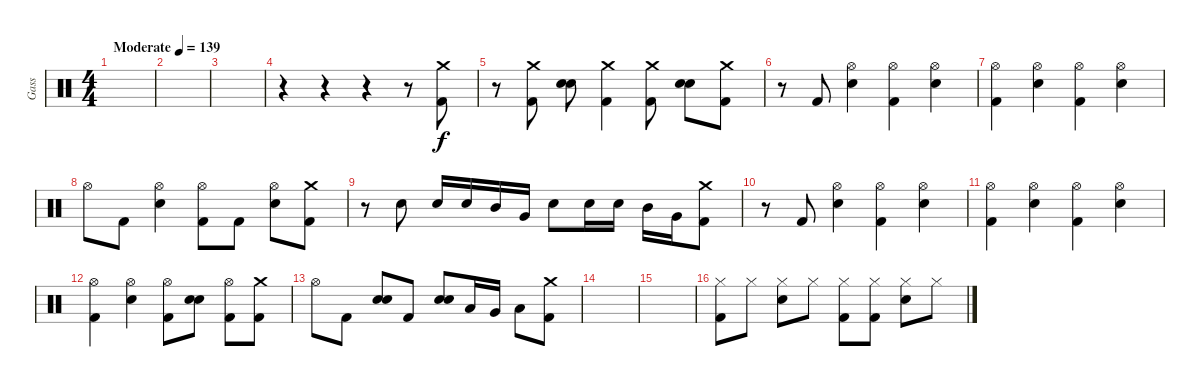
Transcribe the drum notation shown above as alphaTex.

\track ("Gass" "Gass") {instrument percussion}
\staff {score}
\articulation defaults
\ts (4 4)
\tempo (139 "Moderate")
\clef neutral
\ks c
|
|
|
r.4 r.4 r.4 r.8 ("Crash medium (hit)" "Kick (hit) 2").8 |
r.8 ("Crash medium (hit)" "Kick (hit) 2").8 ("Electric Snare (hit)" "Electric Snare (hit)").8 ("Crash medium (hit)" "Kick (hit) 2").4 ("Crash medium (hit)" "Kick (hit) 2").8 ("Electric Snare (hit)" "Electric Snare (hit)").8 ("Crash medium (hit)" "Kick (hit) 2").8 |
r.8 "Kick (hit) 2".8 ("Hi-Hat (open)" "Electric Snare (hit)").4 ("Hi-Hat (open)" "Kick (hit) 2").4 ("Hi-Hat (open)" "Electric Snare (hit)").4 |
("Hi-Hat (open)" "Kick (hit) 2").4 ("Hi-Hat (open)" "Electric Snare (hit)").4 ("Hi-Hat (open)" "Kick (hit) 2").4 ("Hi-Hat (open)" "Electric Snare (hit)").4 |
"Hi-Hat (open)".8 "Kick (hit) 2".8 ("Hi-Hat (open)" "Electric Snare (hit)").4 ("Hi-Hat (open)" "Kick (hit) 2").8 "Kick (hit) 2".8 ("Hi-Hat (open)" "Electric Snare (hit)").8 ("Crash medium (hit)" "Kick (hit) 2").8 |
r.8 "Electric Snare (hit)".8 "Electric Snare (hit)".16 "Electric Snare (hit)".16 "Mid Tom (hit)".16 "Very Low Tom (hit)".16 "Electric Snare (hit)".8 "Electric Snare (hit)".16 "Electric Snare (hit)".16 "Mid Tom (hit)".16 "Very Low Tom (hit)".16 ("Crash medium (hit)" "Kick (hit) 2").8 |
r.8 "Kick (hit) 2".8 ("Hi-Hat (open)" "Electric Snare (hit)").4 ("Hi-Hat (open)" "Kick (hit) 2").4 ("Hi-Hat (open)" "Electric Snare (hit)").4 |
("Hi-Hat (open)" "Kick (hit) 2").4 ("Hi-Hat (open)" "Electric Snare (hit)").4 ("Hi-Hat (open)" "Kick (hit) 2").4 ("Hi-Hat (open)" "Electric Snare (hit)").4 |
("Hi-Hat (open)" "Kick (hit) 2").4 ("Hi-Hat (open)" "Electric Snare (hit)").4 ("Hi-Hat (open)" "Kick (hit) 2").8 ("Electric Snare (hit)" "Electric Snare (hit)").8 ("Hi-Hat (open)" "Kick (hit) 2").8 ("Crash medium (hit)" "Kick (hit) 2").8 |
"Hi-Hat (open)".8 "Kick (hit) 2".8 ("Electric Snare (hit)" "Electric Snare (hit)").8 "Kick (hit) 2".8 ("Electric Snare (hit)" "Electric Snare (hit)").8 "Low Tom (hit)".16 "Very Low Tom (hit)".16 "Low Floor Tom (hit)".8 ("Crash medium (hit)" "Kick (hit) 2").8 |
|
|
("Hi-Hat (closed)" "Kick (hit) 2").8 "Hi-Hat (closed)".8 ("Hi-Hat (closed)" "Electric Snare (hit)").8 "Hi-Hat (closed)".8 ("Hi-Hat (closed)" "Kick (hit) 2").8 ("Hi-Hat (closed)" "Kick (hit) 2").8 ("Hi-Hat (closed)" "Electric Snare (hit)").8 "Hi-Hat (closed)".8
